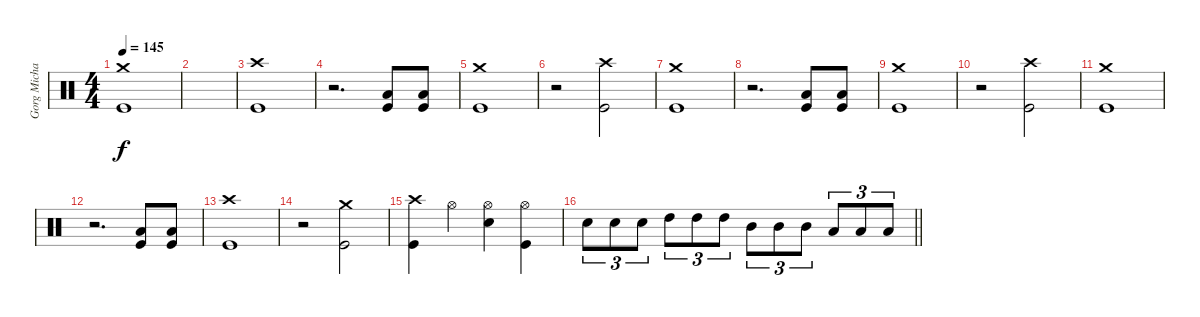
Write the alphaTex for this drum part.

\track ("Gorg Michael" "Gorg Micha") {instrument percussion}
\staff {score}
\articulation defaults
\ts (4 4)
\tempo 145
\clef neutral
\ks c
("Crash medium (hit)" "Kick (hit)").1{dy f} |
|
("Crash high (hit)" "Kick (hit)").1 |
r.2{d} ("Low Tom (hit)" "Kick (hit)").8 ("Low Tom (hit)" "Kick (hit)").8 |
("Crash medium (hit)" "Kick (hit)").1 |
r.2 ("Crash high (hit)" "Kick (hit)").2 |
("Crash medium (hit)" "Kick (hit)").1 |
r.2{d} ("Low Tom (hit)" "Kick (hit)").8 ("Low Tom (hit)" "Kick (hit)").8 |
("Crash medium (hit)" "Kick (hit)").1 |
r.2 ("Crash high (hit)" "Kick (hit)").2 |
("Crash medium (hit)" "Kick (hit)").1 |
r.2{d} ("Low Tom (hit)" "Kick (hit)").8 ("Low Tom (hit)" "Kick (hit)").8 |
("Crash high (hit)" "Kick (hit)").1 |
r.2 ("Crash medium (hit)" "Kick (hit)").2 |
("Crash high (hit)" "Kick (hit)").4 "Hi-Hat (open)".4 ("Hi-Hat (open)" "Snare (hit) 2").4 ("Hi-Hat (open)" "Kick (hit)").4 |
\barLineRight lightlight "Snare (hit) 2".8{tu (3 2)} "Snare (hit) 2".8{tu (3 2)} "Snare (hit) 2".8{tu (3 2)} "High Tom (hit)".8{tu (3 2)} "High Tom (hit)".8{tu (3 2)} "High Tom (hit)".8{tu (3 2)} "Mid Tom (hit)".8{tu (3 2)} "Mid Tom (hit)".8{tu (3 2)} "Mid Tom (hit)".8{tu (3 2)} "Low Tom (hit)".8{tu (3 2)} "Low Tom (hit)".8{tu (3 2)} "Low Tom (hit)".8{tu (3 2)}
